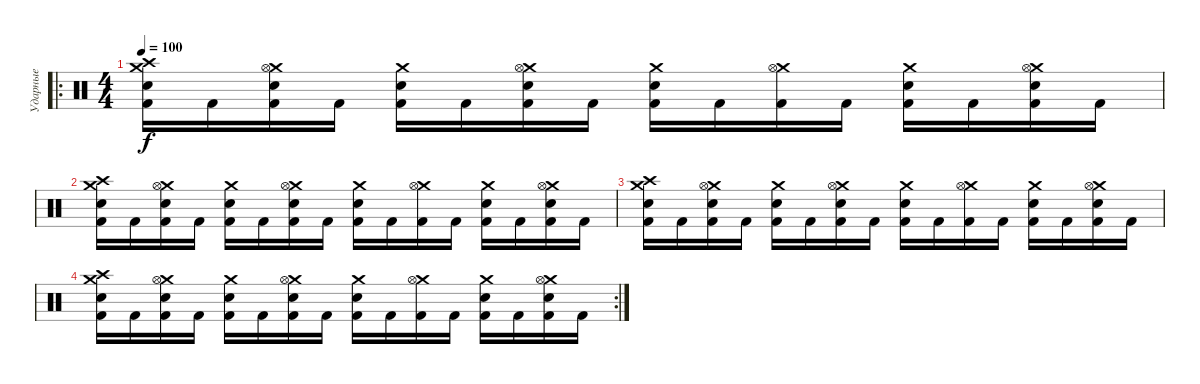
\track ("Ударные" "Ударные") {instrument percussion}
\staff {score}
\articulation defaults
\ro
\ts (4 4)
\tempo 100
\clef neutral
\ks c
("Crash medium (hit)" "Crash high (hit)" "Electric Snare (hit)" "Kick (hit) 2").16{dy f} "Kick (hit) 2".16 ("Crash medium (hit)" "Hi-Hat (open)" "Electric Snare (hit)" "Kick (hit) 2").16 "Kick (hit) 2".16 ("Crash medium (hit)" "Electric Snare (hit)" "Kick (hit) 2").16 "Kick (hit) 2".16 ("Crash medium (hit)" "Hi-Hat (open)" "Electric Snare (hit)" "Kick (hit) 2").16 "Kick (hit) 2".16 ("Crash medium (hit)" "Electric Snare (hit)" "Kick (hit) 2").16 "Kick (hit) 2".16 ("Crash medium (hit)" "Hi-Hat (open)" "Kick (hit) 2").16 "Kick (hit) 2".16 ("Crash medium (hit)" "Electric Snare (hit)" "Kick (hit) 2").16 "Kick (hit) 2".16 ("Crash medium (hit)" "Hi-Hat (open)" "Electric Snare (hit)" "Kick (hit) 2").16 "Kick (hit) 2".16 |
("Crash medium (hit)" "Crash high (hit)" "Electric Snare (hit)" "Kick (hit) 2").16 "Kick (hit) 2".16 ("Crash medium (hit)" "Hi-Hat (open)" "Electric Snare (hit)" "Kick (hit) 2").16 "Kick (hit) 2".16 ("Crash medium (hit)" "Electric Snare (hit)" "Kick (hit) 2").16 "Kick (hit) 2".16 ("Crash medium (hit)" "Hi-Hat (open)" "Electric Snare (hit)" "Kick (hit) 2").16 "Kick (hit) 2".16 ("Crash medium (hit)" "Electric Snare (hit)" "Kick (hit) 2").16 "Kick (hit) 2".16 ("Crash medium (hit)" "Hi-Hat (open)" "Kick (hit) 2").16 "Kick (hit) 2".16 ("Crash medium (hit)" "Electric Snare (hit)" "Kick (hit) 2").16 "Kick (hit) 2".16 ("Crash medium (hit)" "Hi-Hat (open)" "Electric Snare (hit)" "Kick (hit) 2").16 "Kick (hit) 2".16 |
("Crash medium (hit)" "Crash high (hit)" "Electric Snare (hit)" "Kick (hit) 2").16 "Kick (hit) 2".16 ("Crash medium (hit)" "Hi-Hat (open)" "Electric Snare (hit)" "Kick (hit) 2").16 "Kick (hit) 2".16 ("Crash medium (hit)" "Electric Snare (hit)" "Kick (hit) 2").16 "Kick (hit) 2".16 ("Crash medium (hit)" "Hi-Hat (open)" "Electric Snare (hit)" "Kick (hit) 2").16 "Kick (hit) 2".16 ("Crash medium (hit)" "Electric Snare (hit)" "Kick (hit) 2").16 "Kick (hit) 2".16 ("Crash medium (hit)" "Hi-Hat (open)" "Kick (hit) 2").16 "Kick (hit) 2".16 ("Crash medium (hit)" "Electric Snare (hit)" "Kick (hit) 2").16 "Kick (hit) 2".16 ("Crash medium (hit)" "Hi-Hat (open)" "Electric Snare (hit)" "Kick (hit) 2").16 "Kick (hit) 2".16 |
\rc 2
("Crash medium (hit)" "Crash high (hit)" "Electric Snare (hit)" "Kick (hit) 2").16 "Kick (hit) 2".16 ("Crash medium (hit)" "Hi-Hat (open)" "Electric Snare (hit)" "Kick (hit) 2").16 "Kick (hit) 2".16 ("Crash medium (hit)" "Electric Snare (hit)" "Kick (hit) 2").16 "Kick (hit) 2".16 ("Crash medium (hit)" "Hi-Hat (open)" "Electric Snare (hit)" "Kick (hit) 2").16 "Kick (hit) 2".16 ("Crash medium (hit)" "Electric Snare (hit)" "Kick (hit) 2").16 "Kick (hit) 2".16 ("Crash medium (hit)" "Hi-Hat (open)" "Kick (hit) 2").16 "Kick (hit) 2".16 ("Crash medium (hit)" "Electric Snare (hit)" "Kick (hit) 2").16 "Kick (hit) 2".16 ("Crash medium (hit)" "Hi-Hat (open)" "Electric Snare (hit)" "Kick (hit) 2").16 "Kick (hit) 2".16
